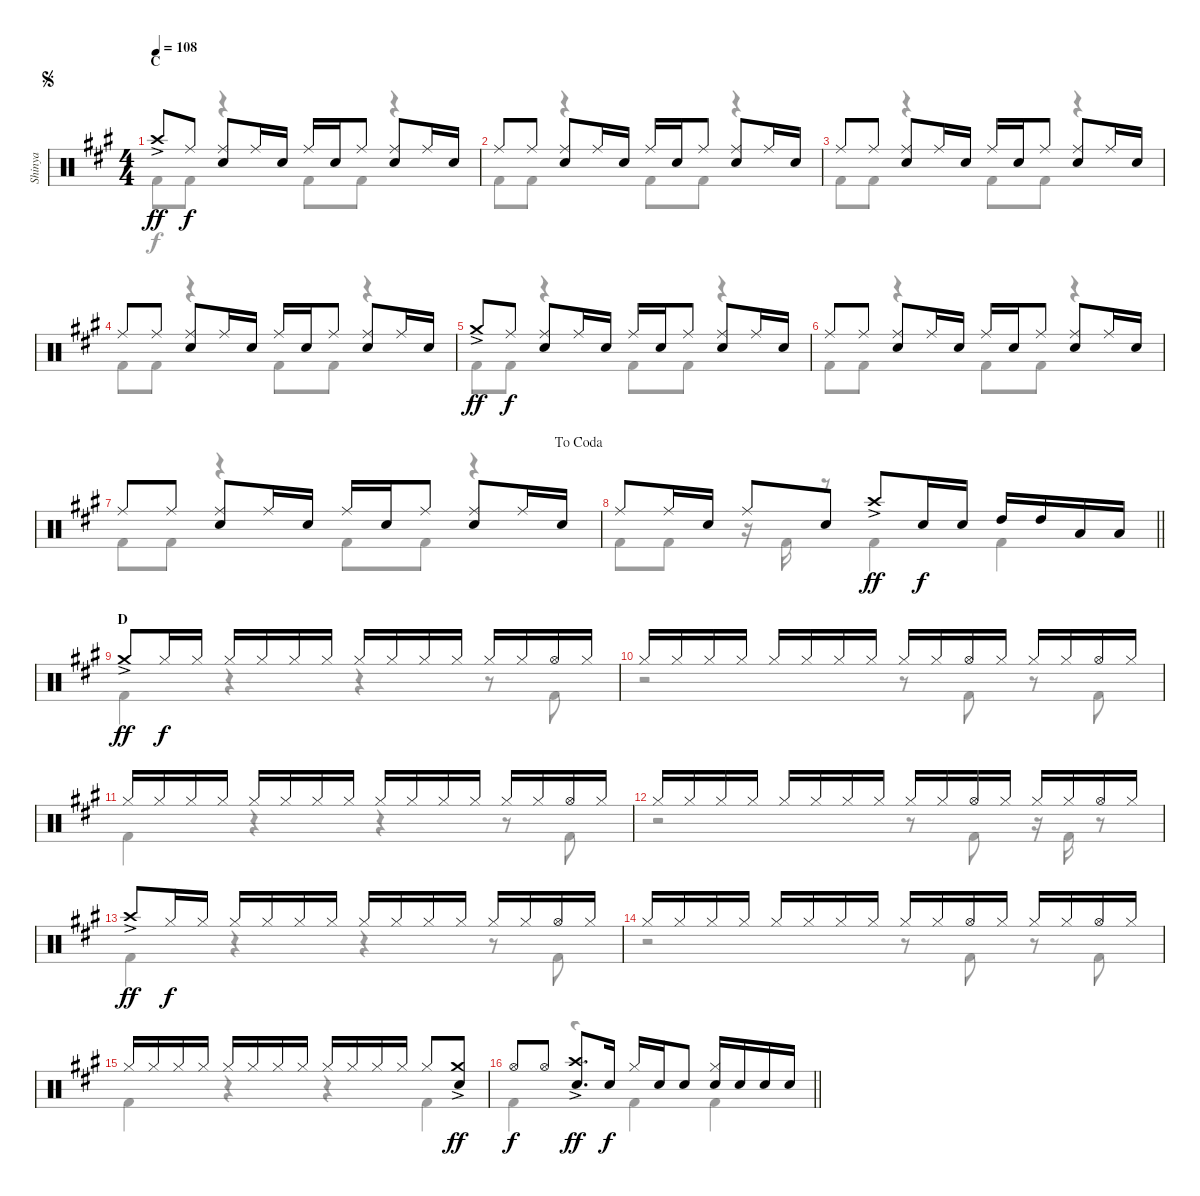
\track ("Shinya" "Shinya") {instrument percussion}
\staff {score}
\articulation defaults
\voice
\ts (4 4)
\section ("" "C")
\jump segno
\tempo 108
\clef neutral
\ks f#minor "Crash high (hit)"{ac}.8{dy ff} "Ride (middle)".8{dy f}
("Ride (middle)" "Snare (hit) 2").8 "Ride (middle)".16 "Snare (hit) 2".16 "Ride (middle)".16 "Snare (hit) 2".16 "Ride (middle)".8 ("Ride (middle)" "Snare (hit) 2").8 "Ride (middle)".16 "Snare (hit) 2".16 |
"Ride (middle)".8 "Ride (middle)".8 ("Ride (middle)" "Snare (hit) 2").8 "Ride (middle)".16 "Snare (hit) 2".16 "Ride (middle)".16 "Snare (hit) 2".16 "Ride (middle)".8 ("Ride (middle)" "Snare (hit) 2").8 "Ride (middle)".16 "Snare (hit) 2".16 |
"Ride (middle)".8 "Ride (middle)".8 ("Ride (middle)" "Snare (hit) 2").8 "Ride (middle)".16 "Snare (hit) 2".16 "Ride (middle)".16 "Snare (hit) 2".16 "Ride (middle)".8 ("Ride (middle)" "Snare (hit) 2").8 "Ride (middle)".16 "Snare (hit) 2".16 |
"Ride (middle)".8 "Ride (middle)".8 ("Ride (middle)" "Snare (hit) 2").8 "Ride (middle)".16 "Snare (hit) 2".16 "Ride (middle)".16 "Snare (hit) 2".16 "Ride (middle)".8 ("Ride (middle)" "Snare (hit) 2").8 "Ride (middle)".16 "Snare (hit) 2".16 |
"Crash medium (hit)"{ac}.8{dy ff} "Ride (middle)".8{dy f} ("Ride (middle)" "Snare (hit) 2").8 "Ride (middle)".16 "Snare (hit) 2".16 "Ride (middle)".16 "Snare (hit) 2".16 "Ride (middle)".8 ("Ride (middle)" "Snare (hit) 2").8 "Ride (middle)".16 "Snare (hit) 2".16 |
"Ride (middle)".8 "Ride (middle)".8 ("Ride (middle)" "Snare (hit) 2").8 "Ride (middle)".16 "Snare (hit) 2".16 "Ride (middle)".16 "Snare (hit) 2".16 "Ride (middle)".8 ("Ride (middle)" "Snare (hit) 2").8 "Ride (middle)".16 "Snare (hit) 2".16 |
\jump dacoda "Ride (middle)".8 "Ride (middle)".8
("Ride (middle)" "Snare (hit) 2").8 "Ride (middle)".16 "Snare (hit) 2".16 "Ride (middle)".16 "Snare (hit) 2".16 "Ride (middle)".8 ("Ride (middle)" "Snare (hit) 2").8 "Ride (middle)".16 "Snare (hit) 2".16 |
\barLineRight lightlight "Ride (middle)".8 "Ride (middle)".16 "Snare (hit) 2".16 "Ride (middle)".8 "Snare (hit) 2".8 "Crash high (hit)"{ac}.8{dy ff} "Snare (hit) 2".16{dy f} "Snare (hit) 2".16 "High Tom (hit)".16 "High Tom (hit)".16 "Low Tom (hit)".16 "Low Tom (hit)".16
|
\section ("" "D")
"Crash medium (hit)"{ac}.8{dy ff} "Hi-Hat (closed)".16{dy f} "Hi-Hat (closed)".16 "Hi-Hat (closed)".16 "Hi-Hat (closed)".16 "Hi-Hat (closed)".16 "Hi-Hat (closed)".16 "Hi-Hat (closed)".16 "Hi-Hat (closed)".16 "Hi-Hat (closed)".16 "Hi-Hat (closed)".16 "Hi-Hat (closed)".16 "Hi-Hat (closed)".16 "Hi-Hat (open)".16 "Hi-Hat (closed)".16 |
"Hi-Hat (closed)".16 "Hi-Hat (closed)".16 "Hi-Hat (closed)".16 "Hi-Hat (closed)".16 "Hi-Hat (closed)".16 "Hi-Hat (closed)".16 "Hi-Hat (closed)".16 "Hi-Hat (closed)".16 "Hi-Hat (closed)".16 "Hi-Hat (closed)".16 "Hi-Hat (open)".16 "Hi-Hat (closed)".16 "Hi-Hat (closed)".16 "Hi-Hat (closed)".16 "Hi-Hat (open)".16 "Hi-Hat (closed)".16 |
"Hi-Hat (closed)".16 "Hi-Hat (closed)".16 "Hi-Hat (closed)".16 "Hi-Hat (closed)".16 "Hi-Hat (closed)".16 "Hi-Hat (closed)".16 "Hi-Hat (closed)".16 "Hi-Hat (closed)".16 "Hi-Hat (closed)".16 "Hi-Hat (closed)".16 "Hi-Hat (closed)".16 "Hi-Hat (closed)".16 "Hi-Hat (closed)".16 "Hi-Hat (closed)".16 "Hi-Hat (open)".16 "Hi-Hat (closed)".16 |
"Hi-Hat (closed)".16 "Hi-Hat (closed)".16 "Hi-Hat (closed)".16 "Hi-Hat (closed)".16 "Hi-Hat (closed)".16 "Hi-Hat (closed)".16 "Hi-Hat (closed)".16 "Hi-Hat (closed)".16 "Hi-Hat (closed)".16 "Hi-Hat (closed)".16 "Hi-Hat (open)".16 "Hi-Hat (closed)".16 "Hi-Hat (closed)".16 "Hi-Hat (closed)".16 "Hi-Hat (open)".16 "Hi-Hat (closed)".16 |
"Crash high (hit)"{ac}.8{dy ff} "Hi-Hat (closed)".16{dy f} "Hi-Hat (closed)".16 "Hi-Hat (closed)".16 "Hi-Hat (closed)".16 "Hi-Hat (closed)".16 "Hi-Hat (closed)".16 "Hi-Hat (closed)".16 "Hi-Hat (closed)".16 "Hi-Hat (closed)".16 "Hi-Hat (closed)".16 "Hi-Hat (closed)".16 "Hi-Hat (closed)".16 "Hi-Hat (open)".16 "Hi-Hat (closed)".16 |
"Hi-Hat (closed)".16 "Hi-Hat (closed)".16 "Hi-Hat (closed)".16 "Hi-Hat (closed)".16 "Hi-Hat (closed)".16 "Hi-Hat (closed)".16 "Hi-Hat (closed)".16 "Hi-Hat (closed)".16 "Hi-Hat (closed)".16 "Hi-Hat (closed)".16 "Hi-Hat (open)".16 "Hi-Hat (closed)".16 "Hi-Hat (closed)".16 "Hi-Hat (closed)".16 "Hi-Hat (open)".16 "Hi-Hat (closed)".16 |
"Hi-Hat (closed)".16 "Hi-Hat (closed)".16 "Hi-Hat (closed)".16 "Hi-Hat (closed)".16 "Hi-Hat (closed)".16 "Hi-Hat (closed)".16 "Hi-Hat (closed)".16 "Hi-Hat (closed)".16 "Hi-Hat (closed)".16 "Hi-Hat (closed)".16 "Hi-Hat (closed)".16 "Hi-Hat (closed)".16 "Hi-Hat (closed)".8 ("Crash medium (hit)"{ac} "Snare (hit) 2").8{dy ff} |
\barLineRight lightlight "Hi-Hat (open)".8{dy f} "Hi-Hat (open)".8
("Crash high (hit)"{ac} "Snare (hit) 2").8{d dy ff} "Snare (hit) 2".16{dy f} "Hi-Hat (closed)".16 "Snare (hit) 2".16 "Snare (hit) 2".8 ("Hi-Hat (closed)" "Snare (hit) 2").16 "Snare (hit) 2".16 "Snare (hit) 2".16 "Snare (hit) 2".16
\voice
\clef neutral
\ottava regular
\simile none
\ks f#minor "Kick (hit) 2".8{dy f} "Kick (hit) 2".8
r.4 "Kick (hit) 2".8 "Kick (hit) 2".8 r.4 |
"Kick (hit) 2".8 "Kick (hit) 2".8 r.4 "Kick (hit) 2".8 "Kick (hit) 2".8 r.4 |
"Kick (hit) 2".8 "Kick (hit) 2".8 r.4 "Kick (hit) 2".8 "Kick (hit) 2".8 r.4 |
"Kick (hit) 2".8 "Kick (hit) 2".8 r.4 "Kick (hit) 2".8 "Kick (hit) 2".8 r.4 |
"Kick (hit) 2".8 "Kick (hit) 2".8 r.4 "Kick (hit) 2".8 "Kick (hit) 2".8 r.4 |
"Kick (hit) 2".8 "Kick (hit) 2".8 r.4 "Kick (hit) 2".8 "Kick (hit) 2".8 r.4 |
"Kick (hit) 2".8 "Kick (hit) 2".8 r.4 "Kick (hit) 2".8 "Kick (hit) 2".8 r.4 |
\barLineRight lightlight "Kick (hit) 2".8 "Kick (hit) 2".8
r.16 "Kick (hit) 2".16 r.8 "Kick (hit) 2".4 "Kick (hit) 2".4 |
"Kick (hit) 2".4 r.4 r.4 r.8 "Kick (hit) 2".8 |
r.2 r.8 "Kick (hit) 2".8 r.8 "Kick (hit) 2".8 |
"Kick (hit) 2".4 r.4 r.4 r.8 "Kick (hit) 2".8 |
r.2 r.8 "Kick (hit) 2".8 r.16 "Kick (hit) 2".16 r.8 |
"Kick (hit) 2".4 r.4 r.4 r.8 "Kick (hit) 2".8 |
r.2 r.8 "Kick (hit) 2".8 r.8 "Kick (hit) 2".8 |
"Kick (hit) 2".4 r.4 r.4 "Kick (hit) 2".4 |
\barLineRight lightlight "Kick (hit) 2".4
r.4 "Kick (hit) 2".4 "Kick (hit) 2".4
